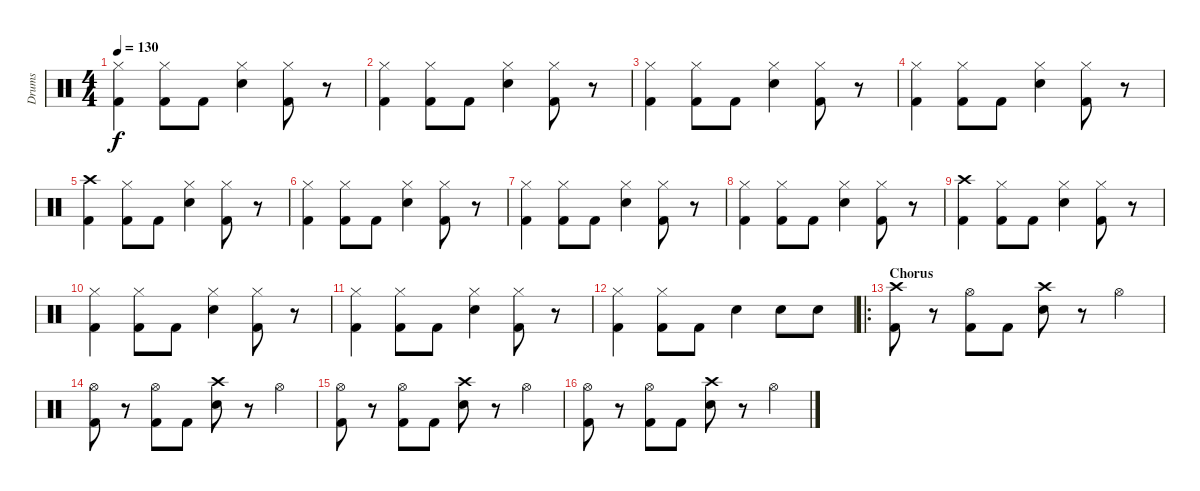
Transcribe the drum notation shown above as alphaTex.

\track ("Drums" "Drums") {instrument percussion}
\staff {score}
\articulation defaults
\ts (4 4)
\tempo 130
\clef neutral
\ks c
("Hi-Hat (closed)" "Kick (hit) 2").4{dy f} ("Hi-Hat (closed)" "Kick (hit) 2").8 "Kick (hit) 2".8 ("Hi-Hat (closed)" "Electric Snare (hit)").4 ("Hi-Hat (closed)" "Kick (hit) 2").8 r.8 |
("Hi-Hat (closed)" "Kick (hit) 2").4 ("Hi-Hat (closed)" "Kick (hit) 2").8 "Kick (hit) 2".8 ("Hi-Hat (closed)" "Electric Snare (hit)").4 ("Hi-Hat (closed)" "Kick (hit) 2").8 r.8 |
("Hi-Hat (closed)" "Kick (hit) 2").4 ("Hi-Hat (closed)" "Kick (hit) 2").8 "Kick (hit) 2".8 ("Hi-Hat (closed)" "Electric Snare (hit)").4 ("Hi-Hat (closed)" "Kick (hit) 2").8 r.8 |
("Hi-Hat (closed)" "Kick (hit) 2").4 ("Hi-Hat (closed)" "Kick (hit) 2").8 "Kick (hit) 2".8 ("Hi-Hat (closed)" "Electric Snare (hit)").4 ("Hi-Hat (closed)" "Kick (hit) 2").8 r.8 |
("Crash high (hit)" "Kick (hit) 2").4 ("Hi-Hat (closed)" "Kick (hit) 2").8 "Kick (hit) 2".8 ("Hi-Hat (closed)" "Electric Snare (hit)").4 ("Hi-Hat (closed)" "Kick (hit) 2").8 r.8 |
("Hi-Hat (closed)" "Kick (hit) 2").4 ("Hi-Hat (closed)" "Kick (hit) 2").8 "Kick (hit) 2".8 ("Hi-Hat (closed)" "Electric Snare (hit)").4 ("Hi-Hat (closed)" "Kick (hit) 2").8 r.8 |
("Hi-Hat (closed)" "Kick (hit) 2").4 ("Hi-Hat (closed)" "Kick (hit) 2").8 "Kick (hit) 2".8 ("Hi-Hat (closed)" "Electric Snare (hit)").4 ("Hi-Hat (closed)" "Kick (hit) 2").8 r.8 |
("Hi-Hat (closed)" "Kick (hit) 2").4 ("Hi-Hat (closed)" "Kick (hit) 2").8 "Kick (hit) 2".8 ("Hi-Hat (closed)" "Electric Snare (hit)").4 ("Hi-Hat (closed)" "Kick (hit) 2").8 r.8 |
("Crash high (hit)" "Kick (hit) 2").4 ("Hi-Hat (closed)" "Kick (hit) 2").8 "Kick (hit) 2".8 ("Hi-Hat (closed)" "Electric Snare (hit)").4 ("Hi-Hat (closed)" "Kick (hit) 2").8 r.8 |
("Hi-Hat (closed)" "Kick (hit) 2").4 ("Hi-Hat (closed)" "Kick (hit) 2").8 "Kick (hit) 2".8 ("Hi-Hat (closed)" "Electric Snare (hit)").4 ("Hi-Hat (closed)" "Kick (hit) 2").8 r.8 |
("Hi-Hat (closed)" "Kick (hit) 2").4 ("Hi-Hat (closed)" "Kick (hit) 2").8 "Kick (hit) 2".8 ("Hi-Hat (closed)" "Electric Snare (hit)").4 ("Hi-Hat (closed)" "Kick (hit) 2").8 r.8 |
("Hi-Hat (closed)" "Kick (hit) 2").4 ("Hi-Hat (closed)" "Kick (hit) 2").8 "Kick (hit) 2".8 "Electric Snare (hit)".4 "Electric Snare (hit)".8 "Electric Snare (hit)".8 |
\ro
\section ("" "Chorus")
("Crash high (hit)" "Kick (hit) 2").8 r.8 ("Hi-Hat (open)" "Kick (hit) 2").8 "Kick (hit) 2".8 ("Crash high (hit)" "Electric Snare (hit)").8 r.8 "Hi-Hat (open)".4 |
("Hi-Hat (open)" "Kick (hit) 2").8 r.8 ("Hi-Hat (open)" "Kick (hit) 2").8 "Kick (hit) 2".8 ("Crash high (hit)" "Electric Snare (hit)").8 r.8 "Hi-Hat (open)".4 |
("Hi-Hat (open)" "Kick (hit) 2").8 r.8 ("Hi-Hat (open)" "Kick (hit) 2").8 "Kick (hit) 2".8 ("Crash high (hit)" "Electric Snare (hit)").8 r.8 "Hi-Hat (open)".4 |
("Hi-Hat (open)" "Kick (hit) 2").8 r.8 ("Hi-Hat (open)" "Kick (hit) 2").8 "Kick (hit) 2".8 ("Crash high (hit)" "Electric Snare (hit)").8 r.8 "Hi-Hat (open)".4
